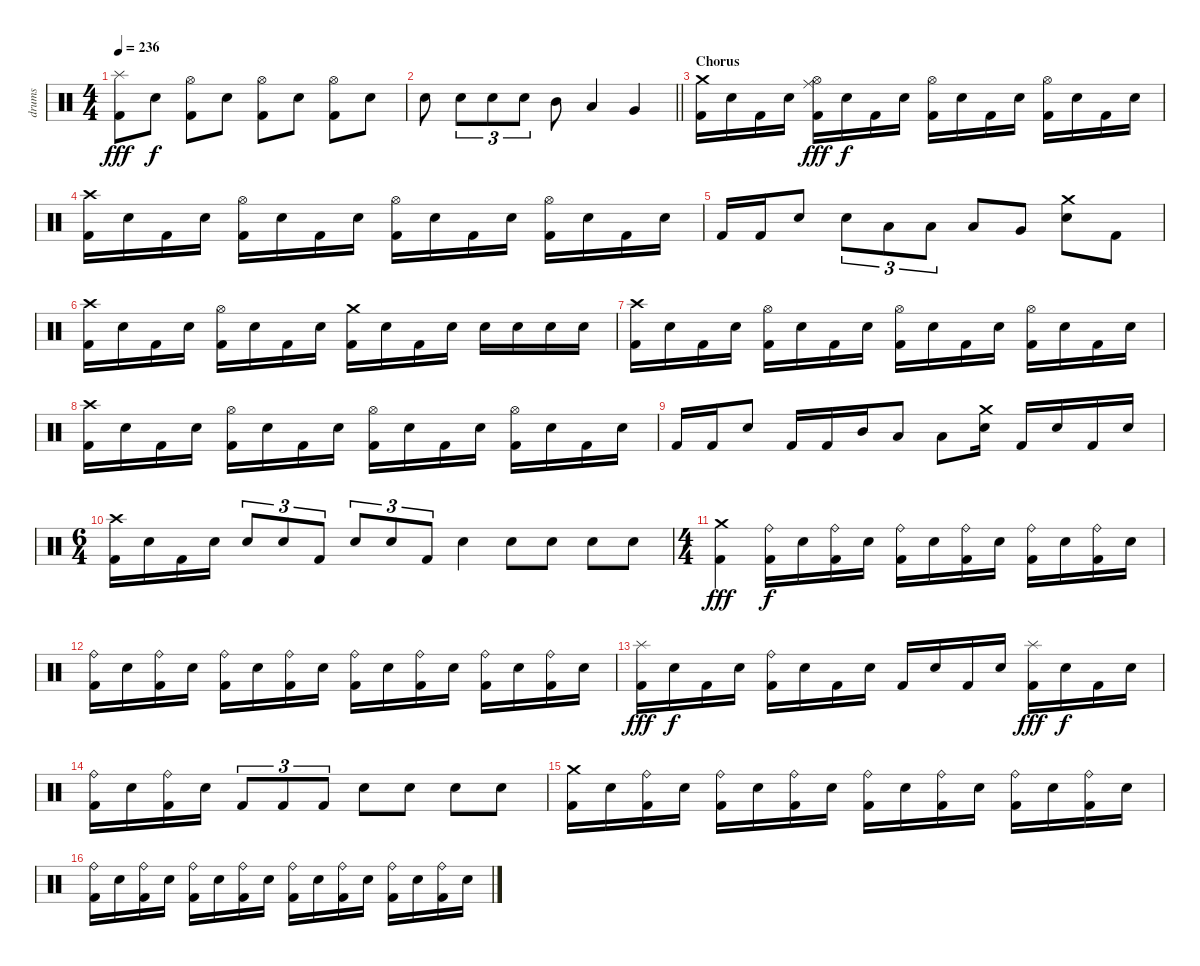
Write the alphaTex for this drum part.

\track ("drums" "drums") {instrument percussion}
\staff {score}
\articulation defaults
\ts (4 4)
\tempo 236
\clef neutral
\ks c
("Splash (hit)" "Kick (hit) 2").8{dy fff} "Electric Snare (hit)".8{dy f} ("Hi-Hat (open)" "Kick (hit) 2").8 "Electric Snare (hit)".8 ("Hi-Hat (open)" "Kick (hit) 2").8 "Electric Snare (hit)".8 ("Hi-Hat (open)" "Kick (hit) 2").8 "Electric Snare (hit)".8 |
\barLineRight lightlight "Electric Snare (hit)".8 "Electric Snare (hit)".8{tu (3 2)} "Electric Snare (hit)".8{tu (3 2)} "Electric Snare (hit)".8{tu (3 2)} "Mid Tom (hit)".8 "Low Tom (hit)".4 "Very Low Tom (hit)".4
|
\section ("" "Chorus")
("Crash medium (hit)" "Kick (hit) 2").16 "Electric Snare (hit)".16 "Kick (hit) 2".16 "Electric Snare (hit)".16 ("Hi-Hat (open)" "Ride (middle)" "Kick (hit) 2").16{dy fff} "Electric Snare (hit)".16{dy f} "Kick (hit) 2".16 "Electric Snare (hit)".16 ("Hi-Hat (open)" "Kick (hit) 2").16 "Electric Snare (hit)".16 "Kick (hit) 2".16 "Electric Snare (hit)".16 ("Hi-Hat (open)" "Kick (hit) 2").16 "Electric Snare (hit)".16 "Kick (hit) 2".16 "Electric Snare (hit)".16 |
("Crash high (hit)" "Kick (hit) 2").16 "Electric Snare (hit)".16 "Kick (hit) 2".16 "Electric Snare (hit)".16 ("Hi-Hat (open)" "Kick (hit) 2").16 "Electric Snare (hit)".16 "Kick (hit) 2".16 "Electric Snare (hit)".16 ("Hi-Hat (open)" "Kick (hit) 2").16 "Electric Snare (hit)".16 "Kick (hit) 2".16 "Electric Snare (hit)".16 ("Hi-Hat (open)" "Kick (hit) 2").16 "Electric Snare (hit)".16 "Kick (hit) 2".16 "Electric Snare (hit)".16 |
"Kick (hit) 2".16 "Kick (hit) 2".16 "Electric Snare (hit)".8 "Electric Snare (hit)".8{tu (3 2)} "Low Tom (hit)".8{tu (3 2)} "Low Tom (hit)".8{tu (3 2)} "Low Tom (hit)".8 "Very Low Tom (hit)".8 ("Crash medium (hit)" "Electric Snare (hit)").8 "Kick (hit) 2".8 |
("Crash high (hit)" "Kick (hit) 2").16 "Electric Snare (hit)".16 "Kick (hit) 2".16 "Electric Snare (hit)".16 ("Hi-Hat (open)" "Kick (hit) 2").16 "Electric Snare (hit)".16 "Kick (hit) 2".16 "Electric Snare (hit)".16 ("Crash medium (hit)" "Kick (hit) 2").16 "Electric Snare (hit)".16 "Kick (hit) 2".16 "Electric Snare (hit)".16 "Electric Snare (hit)".16 "Electric Snare (hit)".16 "Electric Snare (hit)".16 "Electric Snare (hit)".16 |
("Crash high (hit)" "Kick (hit) 2").16 "Electric Snare (hit)".16 "Kick (hit) 2".16 "Electric Snare (hit)".16 ("Hi-Hat (open)" "Kick (hit) 2").16 "Electric Snare (hit)".16 "Kick (hit) 2".16 "Electric Snare (hit)".16 ("Hi-Hat (open)" "Kick (hit) 2").16 "Electric Snare (hit)".16 "Kick (hit) 2".16 "Electric Snare (hit)".16 ("Hi-Hat (open)" "Kick (hit) 2").16 "Electric Snare (hit)".16 "Kick (hit) 2".16 "Electric Snare (hit)".16 |
("Crash high (hit)" "Kick (hit) 2").16 "Electric Snare (hit)".16 "Kick (hit) 2".16 "Electric Snare (hit)".16 ("Hi-Hat (open)" "Kick (hit) 2").16 "Electric Snare (hit)".16 "Kick (hit) 2".16 "Electric Snare (hit)".16 ("Hi-Hat (open)" "Kick (hit) 2").16 "Electric Snare (hit)".16 "Kick (hit) 2".16 "Electric Snare (hit)".16 ("Hi-Hat (open)" "Kick (hit) 2").16 "Electric Snare (hit)".16 "Kick (hit) 2".16 "Electric Snare (hit)".16 |
"Kick (hit) 2".16 "Kick (hit) 2".16 "Electric Snare (hit)".8 "Kick (hit) 2".16 "Kick (hit) 2".16 "Mid Tom (hit)".16 "Low Tom (hit)".8 "Low Tom (hit)".8 ("Crash medium (hit)" "Electric Snare (hit)").16 "Kick (hit) 2".16 "Electric Snare (hit)".16 "Kick (hit) 2".16 "Electric Snare (hit)".16 |
\ts (6 4)
("Crash high (hit)" "Kick (hit) 2").16 "Electric Snare (hit)".16 "Kick (hit) 2".16 "Electric Snare (hit)".16 "Electric Snare (hit)".8{tu (3 2)} "Electric Snare (hit)".8{tu (3 2)} "Kick (hit) 2".8{tu (3 2)} "Electric Snare (hit)".8{tu (3 2)} "Electric Snare (hit)".8{tu (3 2)} "Kick (hit) 2".8{tu (3 2)} "Electric Snare (hit)".4 "Electric Snare (hit)".8 "Electric Snare (hit)".8 "Electric Snare (hit)".8 "Electric Snare (hit)".8 |
\ts (4 4)
("Crash medium (hit)" "Kick (hit) 2").4{dy fff} ("Ride (bell)" "Kick (hit) 2").16{dy f} "Electric Snare (hit)".16 ("Ride (bell)" "Kick (hit) 2").16 "Electric Snare (hit)".16 ("Ride (bell)" "Kick (hit) 2").16 "Electric Snare (hit)".16 ("Ride (bell)" "Kick (hit) 2").16 "Electric Snare (hit)".16 ("Ride (bell)" "Kick (hit) 2").16 "Electric Snare (hit)".16 ("Ride (bell)" "Kick (hit) 2").16 "Electric Snare (hit)".16 |
("Ride (bell)" "Kick (hit) 2").16 "Electric Snare (hit)".16 ("Ride (bell)" "Kick (hit) 2").16 "Electric Snare (hit)".16 ("Ride (bell)" "Kick (hit) 2").16 "Electric Snare (hit)".16 ("Ride (bell)" "Kick (hit) 2").16 "Electric Snare (hit)".16 ("Ride (bell)" "Kick (hit) 2").16 "Electric Snare (hit)".16 ("Ride (bell)" "Kick (hit) 2").16 "Electric Snare (hit)".16 ("Ride (bell)" "Kick (hit) 2").16 "Electric Snare (hit)".16 ("Ride (bell)" "Kick (hit) 2").16 "Electric Snare (hit)".16 |
("Splash (hit)" "Kick (hit) 2").16{dy fff} "Electric Snare (hit)".16{dy f} "Kick (hit) 2".16 "Electric Snare (hit)".16 ("Ride (bell)" "Kick (hit) 2").16 "Electric Snare (hit)".16 "Kick (hit) 2".16 "Electric Snare (hit)".16 "Kick (hit) 2".16 "Electric Snare (hit)".16 "Kick (hit) 2".16 "Electric Snare (hit)".16 ("Splash (hit)" "Kick (hit) 2").16{dy fff} "Electric Snare (hit)".16{dy f} "Kick (hit) 2".16 "Electric Snare (hit)".16 |
("Ride (bell)" "Kick (hit) 2").16 "Electric Snare (hit)".16 ("Ride (bell)" "Kick (hit) 2").16 "Electric Snare (hit)".16 "Kick (hit) 2".8{tu (3 2)} "Kick (hit) 2".8{tu (3 2)} "Kick (hit) 2".8{tu (3 2)} "Electric Snare (hit)".8 "Electric Snare (hit)".8 "Electric Snare (hit)".8 "Electric Snare (hit)".8 |
("Crash medium (hit)" "Kick (hit) 2").16 "Electric Snare (hit)".16 ("Ride (bell)" "Kick (hit) 2").16 "Electric Snare (hit)".16 ("Ride (bell)" "Kick (hit) 2").16 "Electric Snare (hit)".16 ("Ride (bell)" "Kick (hit) 2").16 "Electric Snare (hit)".16 ("Ride (bell)" "Kick (hit) 2").16 "Electric Snare (hit)".16 ("Ride (bell)" "Kick (hit) 2").16 "Electric Snare (hit)".16 ("Ride (bell)" "Kick (hit) 2").16 "Electric Snare (hit)".16 ("Ride (bell)" "Kick (hit) 2").16 "Electric Snare (hit)".16 |
("Ride (bell)" "Kick (hit) 2").16 "Electric Snare (hit)".16 ("Ride (bell)" "Kick (hit) 2").16 "Electric Snare (hit)".16 ("Ride (bell)" "Kick (hit) 2").16 "Electric Snare (hit)".16 ("Ride (bell)" "Kick (hit) 2").16 "Electric Snare (hit)".16 ("Ride (bell)" "Kick (hit) 2").16 "Electric Snare (hit)".16 ("Ride (bell)" "Kick (hit) 2").16 "Electric Snare (hit)".16 ("Ride (bell)" "Kick (hit) 2").16 "Electric Snare (hit)".16 ("Ride (bell)" "Kick (hit) 2").16 "Electric Snare (hit)".16
